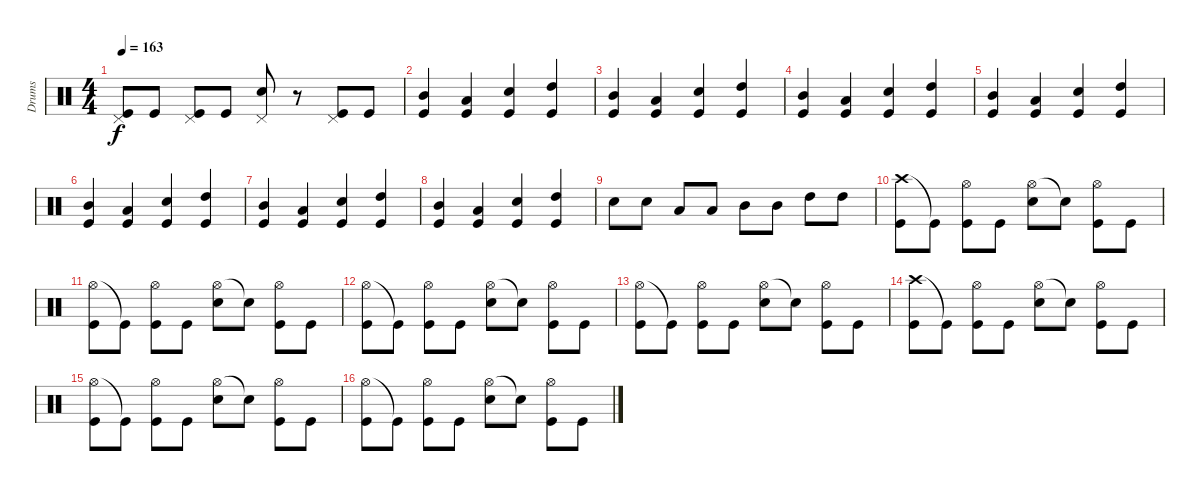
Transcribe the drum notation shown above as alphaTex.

\track ("Drums" "Drums") {instrument percussion}
\staff {score}
\articulation defaults
\ts (4 4)
\tempo 163
\clef neutral
\ks c
("Pedal Hi-Hat (hit)" "Kick (hit)").8{dy f} "Kick (hit)".8 ("Pedal Hi-Hat (hit)" "Kick (hit)").8 "Kick (hit)".8 ("Pedal Hi-Hat (hit)" "Snare (hit) 2").8 r.8 ("Pedal Hi-Hat (hit)" "Kick (hit)").8 "Kick (hit)".8 |
("Mid Tom (hit)" "Kick (hit)").4 ("Low Tom (hit)" "Kick (hit)").4 ("Kick (hit)" "Snare (hit) 2").4 ("High Tom (hit)" "Kick (hit)").4 |
("Mid Tom (hit)" "Kick (hit)").4 ("Low Tom (hit)" "Kick (hit)").4 ("Kick (hit)" "Snare (hit) 2").4 ("High Tom (hit)" "Kick (hit)").4 |
("Mid Tom (hit)" "Kick (hit)").4 ("Low Tom (hit)" "Kick (hit)").4 ("Kick (hit)" "Snare (hit) 2").4 ("High Tom (hit)" "Kick (hit)").4 |
("Mid Tom (hit)" "Kick (hit)").4 ("Low Tom (hit)" "Kick (hit)").4 ("Kick (hit)" "Snare (hit) 2").4 ("High Tom (hit)" "Kick (hit)").4 |
("Mid Tom (hit)" "Kick (hit)").4 ("Low Tom (hit)" "Kick (hit)").4 ("Kick (hit)" "Snare (hit) 2").4 ("High Tom (hit)" "Kick (hit)").4 |
("Mid Tom (hit)" "Kick (hit)").4 ("Low Tom (hit)" "Kick (hit)").4 ("Kick (hit)" "Snare (hit) 2").4 ("High Tom (hit)" "Kick (hit)").4 |
("Mid Tom (hit)" "Kick (hit)").4 ("Low Tom (hit)" "Kick (hit)").4 ("Kick (hit)" "Snare (hit) 2").4 ("High Tom (hit)" "Kick (hit)").4 |
"Snare (hit) 2".8 "Snare (hit) 2".8 "Low Tom (hit)".8 "Low Tom (hit)".8 "Mid Tom (hit)".8 "Mid Tom (hit)".8 "High Tom (hit)".8 "High Tom (hit)".8 |
("Crash high (hit)" "Kick (hit)").8 "Kick (hit)"{t}.8 ("Hi-Hat (open)" "Kick (hit)").8 "Kick (hit)".8 ("Hi-Hat (open)" "Snare (hit) 2").8 "Snare (hit)"{t}.8 ("Hi-Hat (open)" "Kick (hit)").8 "Kick (hit)".8 |
("Hi-Hat (open)" "Kick (hit)").8 "Kick (hit)"{t}.8 ("Hi-Hat (open)" "Kick (hit)").8 "Kick (hit)".8 ("Hi-Hat (open)" "Snare (hit) 2").8 "Snare (hit)"{t}.8 ("Hi-Hat (open)" "Kick (hit)").8 "Kick (hit)".8 |
("Hi-Hat (open)" "Kick (hit)").8 "Kick (hit)"{t}.8 ("Hi-Hat (open)" "Kick (hit)").8 "Kick (hit)".8 ("Hi-Hat (open)" "Snare (hit) 2").8 "Snare (hit)"{t}.8 ("Hi-Hat (open)" "Kick (hit)").8 "Kick (hit)".8 |
("Hi-Hat (open)" "Kick (hit)").8 "Kick (hit)"{t}.8 ("Hi-Hat (open)" "Kick (hit)").8 "Kick (hit)".8 ("Hi-Hat (open)" "Snare (hit) 2").8 "Snare (hit)"{t}.8 ("Hi-Hat (open)" "Kick (hit)").8 "Kick (hit)".8 |
("Crash high (hit)" "Kick (hit)").8 "Kick (hit)"{t}.8 ("Hi-Hat (open)" "Kick (hit)").8 "Kick (hit)".8 ("Hi-Hat (open)" "Snare (hit) 2").8 "Snare (hit)"{t}.8 ("Hi-Hat (open)" "Kick (hit)").8 "Kick (hit)".8 |
("Hi-Hat (open)" "Kick (hit)").8 "Kick (hit)"{t}.8 ("Hi-Hat (open)" "Kick (hit)").8 "Kick (hit)".8 ("Hi-Hat (open)" "Snare (hit) 2").8 "Snare (hit)"{t}.8 ("Hi-Hat (open)" "Kick (hit)").8 "Kick (hit)".8 |
("Hi-Hat (open)" "Kick (hit)").8 "Kick (hit)"{t}.8 ("Hi-Hat (open)" "Kick (hit)").8 "Kick (hit)".8 ("Hi-Hat (open)" "Snare (hit) 2").8 "Snare (hit)"{t}.8 ("Hi-Hat (open)" "Kick (hit)").8 "Kick (hit)".8
